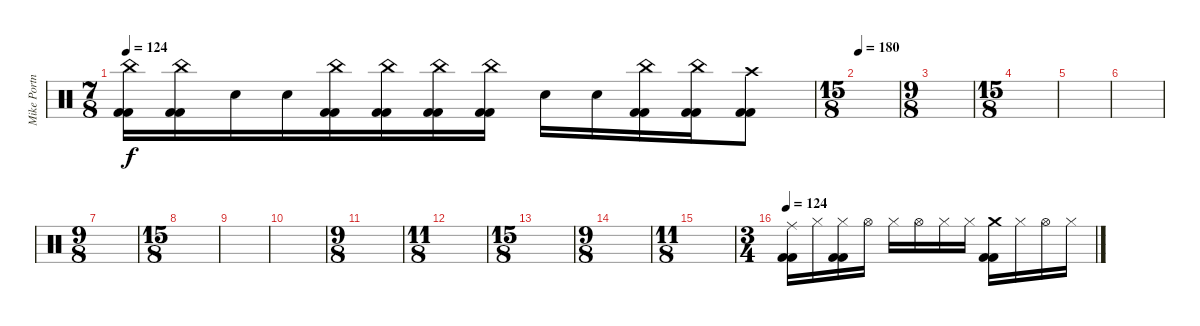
\track ("Mike Portnoy - Drum" "Mike Portn") {instrument percussion}
\staff {score}
\articulation defaults
\ts (7 8)
\tempo 124
\clef neutral
\ks c
("China (hit)" "Kick (hit) 2" "Kick (hit) 2").16{dy f} ("China (hit)" "Kick (hit) 2" "Kick (hit) 2").16 "Snare (hit) 2".16 "Snare (hit) 2".16 ("China (hit)" "Kick (hit) 2" "Kick (hit) 2").16 ("China (hit)" "Kick (hit) 2" "Kick (hit) 2").16 ("China (hit)" "Kick (hit) 2" "Kick (hit) 2").16 ("China (hit)" "Kick (hit) 2" "Kick (hit) 2").16 "Snare (hit) 2".16 "Snare (hit) 2".16 ("China (hit)" "Kick (hit) 2" "Kick (hit) 2").16 ("China (hit)" "Kick (hit) 2" "Kick (hit) 2").16 ("Crash high (hit)" "Kick (hit) 2" "Kick (hit) 2").8 |
\ts (15 8)
\tempo 180
|
\ts (9 8)
|
\ts (15 8)
|
|
|
\ts (9 8)
|
\ts (15 8)
|
|
|
\ts (9 8)
|
\ts (11 8)
|
\ts (15 8)
|
\ts (9 8)
|
\ts (11 8)
|
\ts (3 4)
\tempo 124
("Ride (middle)" "Kick (hit) 2" "Kick (hit) 2").16 "Hi-Hat (closed)".16 ("Hi-Hat (closed)" "Kick (hit) 2" "Kick (hit) 2").16 "Hi-Hat (open)".16 "Hi-Hat (closed)".16 "Hi-Hat (open)".16 "Hi-Hat (closed)".16 "Hi-Hat (closed)".16 ("Crash medium (hit)" "Kick (hit) 2" "Kick (hit) 2").16 "Hi-Hat (closed)".16 "Hi-Hat (open)".16 "Hi-Hat (closed)".16
